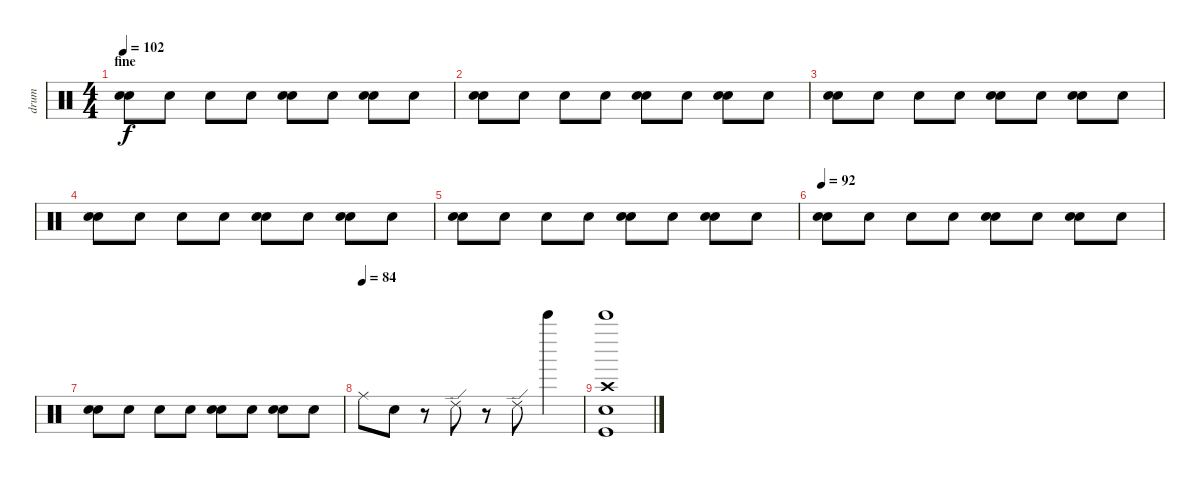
\track ("drum" "drum") {instrument percussion}
\staff {score}
\articulation defaults
\ts (4 4)
\section ("" "fine")
\tempo 102
\clef neutral
\ks c
("Snare (hit) 2" "Electric Snare (hit)").8{dy f} "Electric Snare (hit)".8 "Electric Snare (hit)".8 "Electric Snare (hit)".8 ("Snare (hit) 2" "Electric Snare (hit)").8 "Electric Snare (hit)".8 ("Snare (hit) 2" "Electric Snare (hit)").8 "Electric Snare (hit)".8 |
("Snare (hit) 2" "Electric Snare (hit)").8 "Electric Snare (hit)".8 "Electric Snare (hit)".8 "Electric Snare (hit)".8 ("Snare (hit) 2" "Electric Snare (hit)").8 "Electric Snare (hit)".8 ("Snare (hit) 2" "Electric Snare (hit)").8 "Electric Snare (hit)".8 |
("Snare (hit) 2" "Electric Snare (hit)").8 "Electric Snare (hit)".8 "Electric Snare (hit)".8 "Electric Snare (hit)".8 ("Snare (hit) 2" "Electric Snare (hit)").8 "Electric Snare (hit)".8 ("Snare (hit) 2" "Electric Snare (hit)").8 "Electric Snare (hit)".8 |
("Snare (hit) 2" "Electric Snare (hit)").8 "Electric Snare (hit)".8 "Electric Snare (hit)".8 "Electric Snare (hit)".8 ("Snare (hit) 2" "Electric Snare (hit)").8 "Electric Snare (hit)".8 ("Snare (hit) 2" "Electric Snare (hit)").8 "Electric Snare (hit)".8 |
("Snare (hit) 2" "Electric Snare (hit)").8 "Electric Snare (hit)".8 "Electric Snare (hit)".8 "Electric Snare (hit)".8 ("Snare (hit) 2" "Electric Snare (hit)").8 "Electric Snare (hit)".8 ("Snare (hit) 2" "Electric Snare (hit)").8 "Electric Snare (hit)".8 |
\tempo 92
("Snare (hit) 2" "Electric Snare (hit)").8 "Electric Snare (hit)".8 "Electric Snare (hit)".8 "Electric Snare (hit)".8 ("Snare (hit) 2" "Electric Snare (hit)").8 "Electric Snare (hit)".8 ("Snare (hit) 2" "Electric Snare (hit)").8 "Electric Snare (hit)".8 |
("Snare (hit) 2" "Electric Snare (hit)").8 "Electric Snare (hit)".8 "Electric Snare (hit)".8 "Electric Snare (hit)".8 ("Snare (hit) 2" "Electric Snare (hit)").8 "Electric Snare (hit)".8 ("Snare (hit) 2" "Electric Snare (hit)").8 "Electric Snare (hit)".8 |
\tempo (84)
"Ride (middle)".8 "Snare (hit) 2".8 r.8 "Ride (edge) 2".8 r.8 "Ride (edge) 2".8 "Bell Tree (hit)".4 |
("Snare (hit) 2" "Crash high (hit)" "Kick (hit)" "Bell Tree (hit)").1
